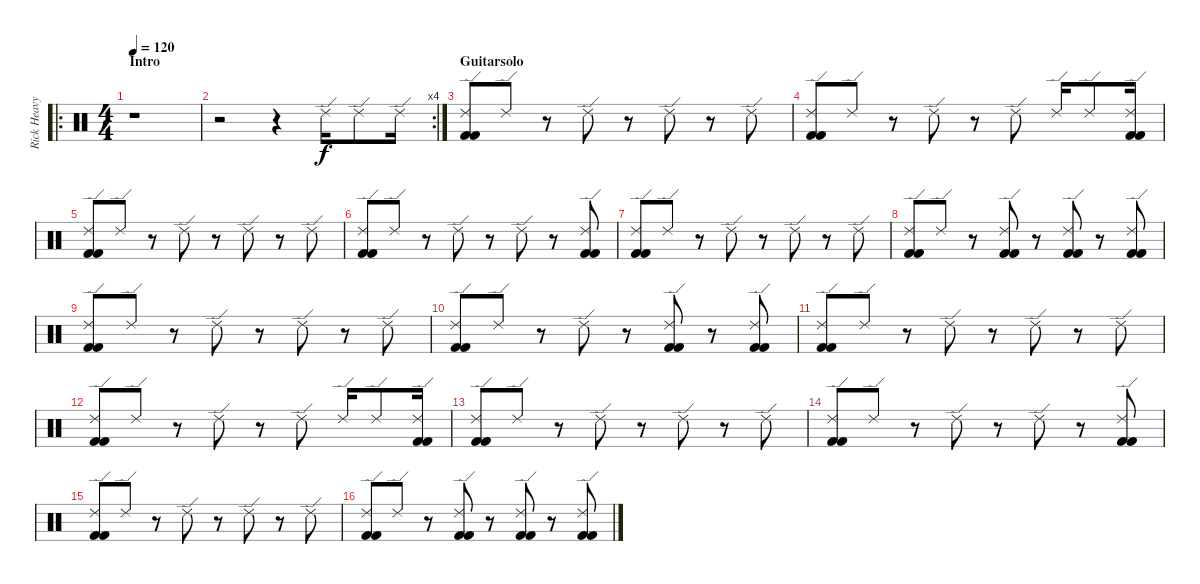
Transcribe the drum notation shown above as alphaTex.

\track ("Rick Heavy" "Rick Heavy") {instrument percussion}
\staff {score}
\articulation defaults
\ro
\ts (4 4)
\section ("" "Intro")
\tempo 120
\clef neutral
\ks c
r.1{dy f} |
\rc 4
r.2 r.4 "Ride (edge) 2".16 "Ride (edge) 2".8 "Ride (edge) 2".16 |
\section ("" "Guitarsolo")
("Ride (edge) 2" "Kick (hit) 2" "Kick (hit) 2").8 "Ride (edge) 2".8 r.8 "Ride (edge) 2".8 r.8 "Ride (edge) 2".8 r.8 "Ride (edge) 2".8 |
("Ride (edge) 2" "Kick (hit) 2" "Kick (hit) 2").8 "Ride (edge) 2".8 r.8 "Ride (edge) 2".8 r.8 "Ride (edge) 2".8 "Ride (edge) 2".16 "Ride (edge) 2".8 ("Ride (edge) 2" "Kick (hit) 2" "Kick (hit) 2").16 |
("Ride (edge) 2" "Kick (hit) 2" "Kick (hit) 2").8 "Ride (edge) 2".8 r.8 "Ride (edge) 2".8 r.8 "Ride (edge) 2".8 r.8 "Ride (edge) 2".8 |
("Ride (edge) 2" "Kick (hit) 2" "Kick (hit) 2").8 "Ride (edge) 2".8 r.8 "Ride (edge) 2".8 r.8 "Ride (edge) 2".8 r.8 ("Ride (edge) 2" "Kick (hit) 2" "Kick (hit) 2").8 |
("Ride (edge) 2" "Kick (hit) 2" "Kick (hit) 2").8 "Ride (edge) 2".8 r.8 "Ride (edge) 2".8 r.8 "Ride (edge) 2".8 r.8 "Ride (edge) 2".8 |
("Ride (edge) 2" "Kick (hit) 2" "Kick (hit) 2").8 "Ride (edge) 2".8 r.8 ("Ride (edge) 2" "Kick (hit) 2" "Kick (hit) 2").8 r.8 ("Ride (edge) 2" "Kick (hit) 2" "Kick (hit) 2").8 r.8 ("Ride (edge) 2" "Kick (hit) 2" "Kick (hit) 2").8 |
("Ride (edge) 2" "Kick (hit) 2" "Kick (hit) 2").8 "Ride (edge) 2".8 r.8 "Ride (edge) 2".8 r.8 "Ride (edge) 2".8 r.8 "Ride (edge) 2".8 |
("Ride (edge) 2" "Kick (hit) 2" "Kick (hit) 2").8 "Ride (edge) 2".8 r.8 "Ride (edge) 2".8 r.8 ("Ride (edge) 2" "Kick (hit) 2" "Kick (hit) 2").8 r.8 ("Ride (edge) 2" "Kick (hit) 2" "Kick (hit) 2").8 |
("Ride (edge) 2" "Kick (hit) 2" "Kick (hit) 2").8 "Ride (edge) 2".8 r.8 "Ride (edge) 2".8 r.8 "Ride (edge) 2".8 r.8 "Ride (edge) 2".8 |
("Ride (edge) 2" "Kick (hit) 2" "Kick (hit) 2").8 "Ride (edge) 2".8 r.8 "Ride (edge) 2".8 r.8 "Ride (edge) 2".8 "Ride (edge) 2".16 "Ride (edge) 2".8 ("Ride (edge) 2" "Kick (hit) 2" "Kick (hit) 2").16 |
("Ride (edge) 2" "Kick (hit) 2" "Kick (hit) 2").8 "Ride (edge) 2".8 r.8 "Ride (edge) 2".8 r.8 "Ride (edge) 2".8 r.8 "Ride (edge) 2".8 |
("Ride (edge) 2" "Kick (hit) 2" "Kick (hit) 2").8 "Ride (edge) 2".8 r.8 "Ride (edge) 2".8 r.8 "Ride (edge) 2".8 r.8 ("Ride (edge) 2" "Kick (hit) 2" "Kick (hit) 2").8 |
("Ride (edge) 2" "Kick (hit) 2" "Kick (hit) 2").8 "Ride (edge) 2".8 r.8 "Ride (edge) 2".8 r.8 "Ride (edge) 2".8 r.8 "Ride (edge) 2".8 |
("Ride (edge) 2" "Kick (hit) 2" "Kick (hit) 2").8 "Ride (edge) 2".8 r.8 ("Ride (edge) 2" "Kick (hit) 2" "Kick (hit) 2").8 r.8 ("Ride (edge) 2" "Kick (hit) 2" "Kick (hit) 2").8 r.8 ("Ride (edge) 2" "Kick (hit) 2" "Kick (hit) 2").8
